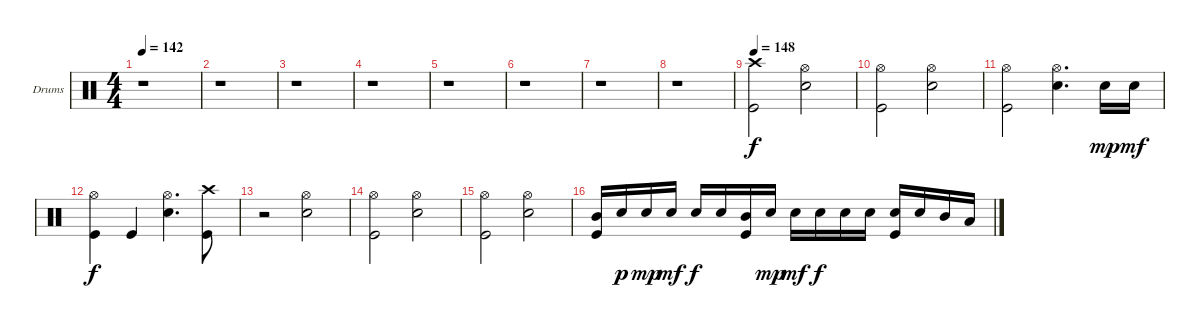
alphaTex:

\bracketExtendMode groupsimilarinstruments
\firstSystemTrackNameOrientation horizontal
\otherSystemsTrackNameOrientation horizontal
\track ("Drumkit" "Drums") {instrument percussion}
\staff {score}
\articulation defaults
\ts (4 4)
\tempo 142
\clef neutral
\ks c
r.1{dy f} |
r.1 |
r.1 |
r.1 |
r.1 |
r.1 |
r.1 |
r.1 |
\tempo 148
("Crash high (hit)" "Kick (hit)").2 ("Hi-Hat (open)" "Snare (hit) 2").2 |
("Hi-Hat (open)" "Kick (hit)").2 ("Hi-Hat (open)" "Snare (hit) 2").2 |
("Hi-Hat (open)" "Kick (hit)").2 ("Hi-Hat (open)" "Snare (hit) 2").4{d} "Snare (hit) 2".16{dy mp} "Snare (hit) 2".16{dy mf} |
("Hi-Hat (open)" "Kick (hit)").4{dy f} "Kick (hit)".4 ("Hi-Hat (open)" "Snare (hit) 2").4{d} ("Crash high (hit)" "Kick (hit)").8 |
r.2 ("Hi-Hat (open)" "Snare (hit) 2").2 |
("Hi-Hat (open)" "Kick (hit)").2 ("Hi-Hat (open)" "Snare (hit) 2").2 |
("Hi-Hat (open)" "Kick (hit)").2 ("Hi-Hat (open)" "Snare (hit) 2").2 |
("Mid Tom (hit)" "Kick (hit)").16 "Snare (hit) 2".16{dy p} "Snare (hit) 2".16{dy mp} "Snare (hit) 2".16{dy mf} "Snare (hit) 2".16{dy f} "Snare (hit) 2".16 ("Mid Tom (hit)" "Kick (hit)").16 "Snare (hit) 2".16{dy mp} "Snare (hit) 2".16{dy mf} "Snare (hit) 2".16{dy f} "Snare (hit) 2".16 "Snare (hit) 2".16 ("Snare (hit) 2" "Kick (hit)").16 "Snare (hit) 2".16 "Mid Tom (hit)".16 "Low Tom (hit)".16
